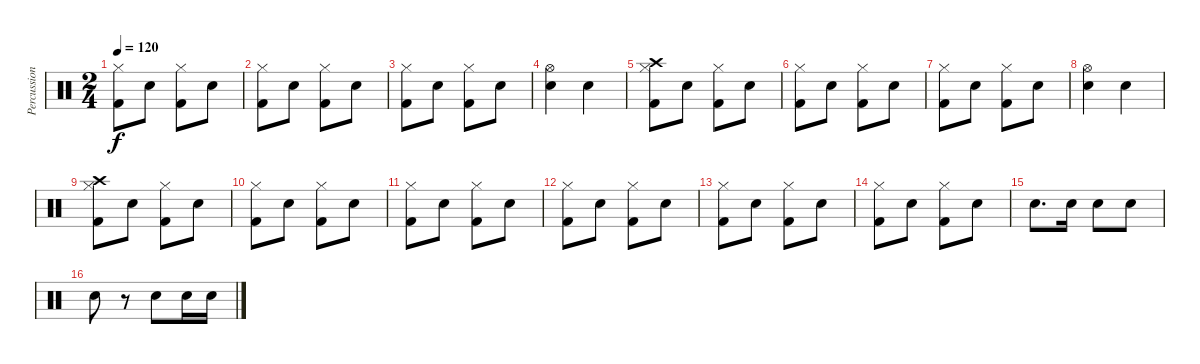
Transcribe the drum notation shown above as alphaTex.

\track ("Percussion" "Percussion") {instrument percussion}
\staff {score}
\articulation defaults
\ts (2 4)
\tempo 120
\clef neutral
\ks c
("Hi-Hat (closed)" "Kick (hit) 2").8{dy f} "Snare (hit) 2".8 ("Hi-Hat (closed)" "Kick (hit) 2").8 "Snare (hit) 2".8 |
("Hi-Hat (closed)" "Kick (hit) 2").8 "Snare (hit) 2".8 ("Hi-Hat (closed)" "Kick (hit) 2").8 "Snare (hit) 2".8 |
("Hi-Hat (closed)" "Kick (hit) 2").8 "Snare (hit) 2".8 ("Hi-Hat (closed)" "Kick (hit) 2").8 "Snare (hit) 2".8 |
("Hi-Hat (open)" "Snare (hit) 2").4 "Snare (hit) 2".4 |
("Crash high (hit)" "Hi-Hat (closed)" "Kick (hit) 2").8 "Snare (hit) 2".8 ("Hi-Hat (closed)" "Kick (hit) 2").8 "Snare (hit) 2".8 |
("Hi-Hat (closed)" "Kick (hit) 2").8 "Snare (hit) 2".8 ("Hi-Hat (closed)" "Kick (hit) 2").8 "Snare (hit) 2".8 |
("Hi-Hat (closed)" "Kick (hit) 2").8 "Snare (hit) 2".8 ("Hi-Hat (closed)" "Kick (hit) 2").8 "Snare (hit) 2".8 |
("Hi-Hat (open)" "Snare (hit) 2").4 "Snare (hit) 2".4 |
("Crash high (hit)" "Hi-Hat (closed)" "Kick (hit) 2").8 "Snare (hit) 2".8 ("Hi-Hat (closed)" "Kick (hit) 2").8 "Snare (hit) 2".8 |
("Hi-Hat (closed)" "Kick (hit) 2").8 "Snare (hit) 2".8 ("Hi-Hat (closed)" "Kick (hit) 2").8 "Snare (hit) 2".8 |
("Hi-Hat (closed)" "Kick (hit) 2").8 "Snare (hit) 2".8 ("Hi-Hat (closed)" "Kick (hit) 2").8 "Snare (hit) 2".8 |
("Hi-Hat (closed)" "Kick (hit) 2").8 "Snare (hit) 2".8 ("Hi-Hat (closed)" "Kick (hit) 2").8 "Snare (hit) 2".8 |
("Hi-Hat (closed)" "Kick (hit) 2").8 "Snare (hit) 2".8 ("Hi-Hat (closed)" "Kick (hit) 2").8 "Snare (hit) 2".8 |
("Hi-Hat (closed)" "Kick (hit) 2").8 "Snare (hit) 2".8 ("Hi-Hat (closed)" "Kick (hit) 2").8 "Snare (hit) 2".8 |
"Electric Snare (hit)".8{d} "Electric Snare (hit)".16 "Electric Snare (hit)".8 "Electric Snare (hit)".8 |
"Electric Snare (hit)".8 r.8 "Electric Snare (hit)".8 "Electric Snare (hit)".16 "Electric Snare (hit)".16
